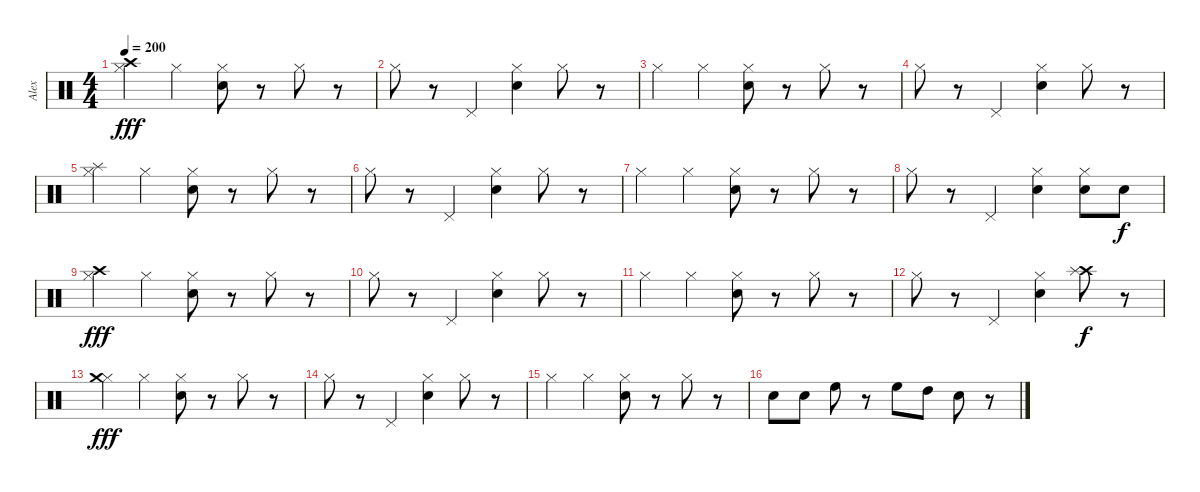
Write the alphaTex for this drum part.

\track ("Alex" "Alex") {instrument percussion}
\staff {score}
\articulation defaults
\ts (4 4)
\tempo 200
\clef neutral
\ks c
("Crash high (hit)" "Hi-Hat (closed)").4{dy fff} "Hi-Hat (closed)".4 ("Electric Snare (hit)" "Hi-Hat (closed)").8 r.8 "Hi-Hat (closed)".8 r.8 |
"Hi-Hat (closed)".8 r.8 "Pedal Hi-Hat (hit)".4 ("Electric Snare (hit)" "Hi-Hat (closed)").4 "Hi-Hat (closed)".8 r.8 |
"Hi-Hat (closed)".4 "Hi-Hat (closed)".4 ("Electric Snare (hit)" "Hi-Hat (closed)").8 r.8 "Hi-Hat (closed)".8 r.8 |
"Hi-Hat (closed)".8 r.8 "Pedal Hi-Hat (hit)".4 ("Electric Snare (hit)" "Hi-Hat (closed)").4 "Hi-Hat (closed)".8 r.8 |
("Hi-Hat (closed)" "Splash (hit)").4 "Hi-Hat (closed)".4 ("Electric Snare (hit)" "Hi-Hat (closed)").8 r.8 "Hi-Hat (closed)".8 r.8 |
"Hi-Hat (closed)".8 r.8 "Pedal Hi-Hat (hit)".4 ("Electric Snare (hit)" "Hi-Hat (closed)").4 "Hi-Hat (closed)".8 r.8 |
"Hi-Hat (closed)".4 "Hi-Hat (closed)".4 ("Electric Snare (hit)" "Hi-Hat (closed)").8 r.8 "Hi-Hat (closed)".8 r.8 |
"Hi-Hat (closed)".8 r.8 "Pedal Hi-Hat (hit)".4 ("Electric Snare (hit)" "Hi-Hat (closed)").4 ("Electric Snare (hit)" "Hi-Hat (closed)").8 "Electric Snare (hit)".8{dy f} |
("Hi-Hat (closed)" "Crash high (hit)").4{dy fff} "Hi-Hat (closed)".4 ("Electric Snare (hit)" "Hi-Hat (closed)").8 r.8 "Hi-Hat (closed)".8 r.8 |
"Hi-Hat (closed)".8 r.8 "Pedal Hi-Hat (hit)".4 ("Electric Snare (hit)" "Hi-Hat (closed)").4 "Hi-Hat (closed)".8 r.8 |
"Hi-Hat (closed)".4 "Hi-Hat (closed)".4 ("Electric Snare (hit)" "Hi-Hat (closed)").8 r.8 "Hi-Hat (closed)".8 r.8 |
"Hi-Hat (closed)".8 r.8 "Pedal Hi-Hat (hit)".4 ("Electric Snare (hit)" "Hi-Hat (closed)").4 ("Crash high (hit)" "Splash (hit)").8{dy f} r.8 |
("Hi-Hat (closed)" "Crash medium (hit)").4{dy fff} "Hi-Hat (closed)".4 ("Electric Snare (hit)" "Hi-Hat (closed)").8 r.8 "Hi-Hat (closed)".8 r.8 |
"Hi-Hat (closed)".8 r.8 "Pedal Hi-Hat (hit)".4 ("Electric Snare (hit)" "Hi-Hat (closed)").4 "Hi-Hat (closed)".8 r.8 |
"Hi-Hat (closed)".4 "Hi-Hat (closed)".4 ("Electric Snare (hit)" "Hi-Hat (closed)").8 r.8 "Hi-Hat (closed)".8 r.8 |
"Electric Snare (hit)".8 "Electric Snare (hit)".8 "High Floor Tom (hit)".8 r.8 "High Floor Tom (hit)".8 "High Tom (hit)".8 "Snare (hit) 2".8 r.8
